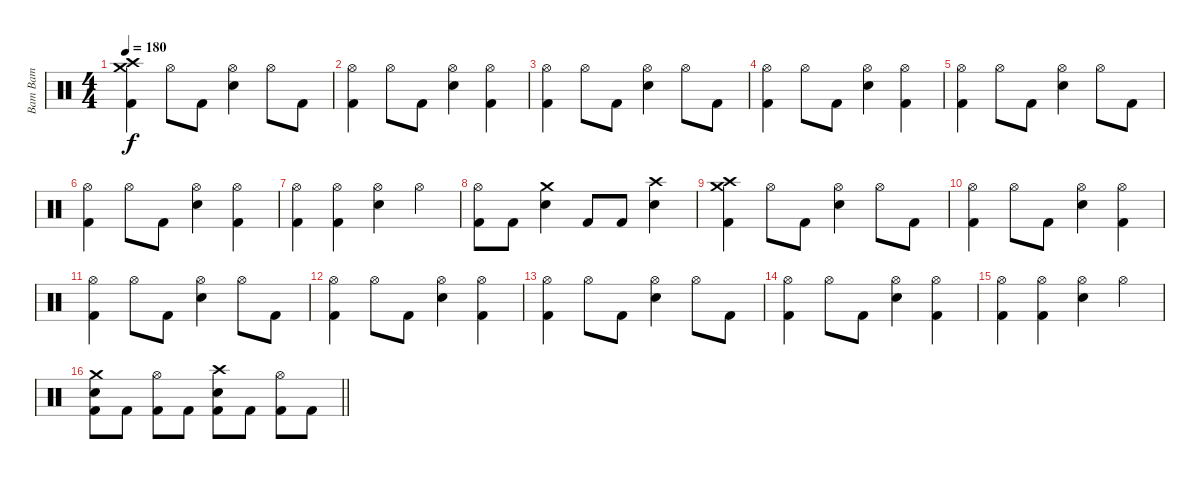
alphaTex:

\track ("Bam Bam" "Bam Bam") {instrument percussion}
\staff {score}
\articulation defaults
\ts (4 4)
\tempo 180
\clef neutral
\ks c
("Crash medium (hit)" "Crash high (hit)" "Kick (hit) 2").4{dy f} "Hi-Hat (open)".8 "Kick (hit) 2".8 ("Hi-Hat (open)" "Electric Snare (hit)").4 "Hi-Hat (open)".8 "Kick (hit) 2".8 |
("Hi-Hat (open)" "Kick (hit) 2").4 "Hi-Hat (open)".8 "Kick (hit) 2".8 ("Hi-Hat (open)" "Electric Snare (hit)").4 ("Hi-Hat (open)" "Kick (hit) 2").4 |
("Hi-Hat (open)" "Kick (hit) 2").4 "Hi-Hat (open)".8 "Kick (hit) 2".8 ("Hi-Hat (open)" "Electric Snare (hit)").4 "Hi-Hat (open)".8 "Kick (hit) 2".8 |
("Hi-Hat (open)" "Kick (hit) 2").4 "Hi-Hat (open)".8 "Kick (hit) 2".8 ("Hi-Hat (open)" "Electric Snare (hit)").4 ("Hi-Hat (open)" "Kick (hit) 2").4 |
("Hi-Hat (open)" "Kick (hit) 2").4 "Hi-Hat (open)".8 "Kick (hit) 2".8 ("Hi-Hat (open)" "Electric Snare (hit)").4 "Hi-Hat (open)".8 "Kick (hit) 2".8 |
("Hi-Hat (open)" "Kick (hit) 2").4 "Hi-Hat (open)".8 "Kick (hit) 2".8 ("Hi-Hat (open)" "Electric Snare (hit)").4 ("Hi-Hat (open)" "Kick (hit) 2").4 |
("Hi-Hat (open)" "Kick (hit) 2").4 ("Hi-Hat (open)" "Kick (hit) 2").4 ("Hi-Hat (open)" "Electric Snare (hit)").4 "Hi-Hat (open)".4 |
("Hi-Hat (open)" "Kick (hit) 2").8 "Kick (hit) 2".8 ("Crash medium (hit)" "Electric Snare (hit)").4 "Kick (hit) 2".8 "Kick (hit) 2".8 ("Crash high (hit)" "Electric Snare (hit)").4 |
("Crash medium (hit)" "Crash high (hit)" "Kick (hit) 2").4 "Hi-Hat (open)".8 "Kick (hit) 2".8 ("Hi-Hat (open)" "Electric Snare (hit)").4 "Hi-Hat (open)".8 "Kick (hit) 2".8 |
("Hi-Hat (open)" "Kick (hit) 2").4 "Hi-Hat (open)".8 "Kick (hit) 2".8 ("Hi-Hat (open)" "Electric Snare (hit)").4 ("Hi-Hat (open)" "Kick (hit) 2").4 |
("Hi-Hat (open)" "Kick (hit) 2").4 "Hi-Hat (open)".8 "Kick (hit) 2".8 ("Hi-Hat (open)" "Electric Snare (hit)").4 "Hi-Hat (open)".8 "Kick (hit) 2".8 |
("Hi-Hat (open)" "Kick (hit) 2").4 "Hi-Hat (open)".8 "Kick (hit) 2".8 ("Hi-Hat (open)" "Electric Snare (hit)").4 ("Hi-Hat (open)" "Kick (hit) 2").4 |
("Hi-Hat (open)" "Kick (hit) 2").4 "Hi-Hat (open)".8 "Kick (hit) 2".8 ("Hi-Hat (open)" "Electric Snare (hit)").4 "Hi-Hat (open)".8 "Kick (hit) 2".8 |
("Hi-Hat (open)" "Kick (hit) 2").4 "Hi-Hat (open)".8 "Kick (hit) 2".8 ("Hi-Hat (open)" "Electric Snare (hit)").4 ("Hi-Hat (open)" "Kick (hit) 2").4 |
("Hi-Hat (open)" "Kick (hit) 2").4 ("Hi-Hat (open)" "Kick (hit) 2").4 ("Hi-Hat (open)" "Electric Snare (hit)").4 "Hi-Hat (open)".4 |
\barLineRight lightlight
("Crash medium (hit)" "Electric Snare (hit)" "Kick (hit) 2").8 "Kick (hit) 2".8 ("Hi-Hat (open)" "Kick (hit) 2").8 "Kick (hit) 2".8 ("Crash high (hit)" "Electric Snare (hit)" "Kick (hit) 2").8 "Kick (hit) 2".8 ("Hi-Hat (open)" "Kick (hit) 2").8 "Kick (hit) 2".8
